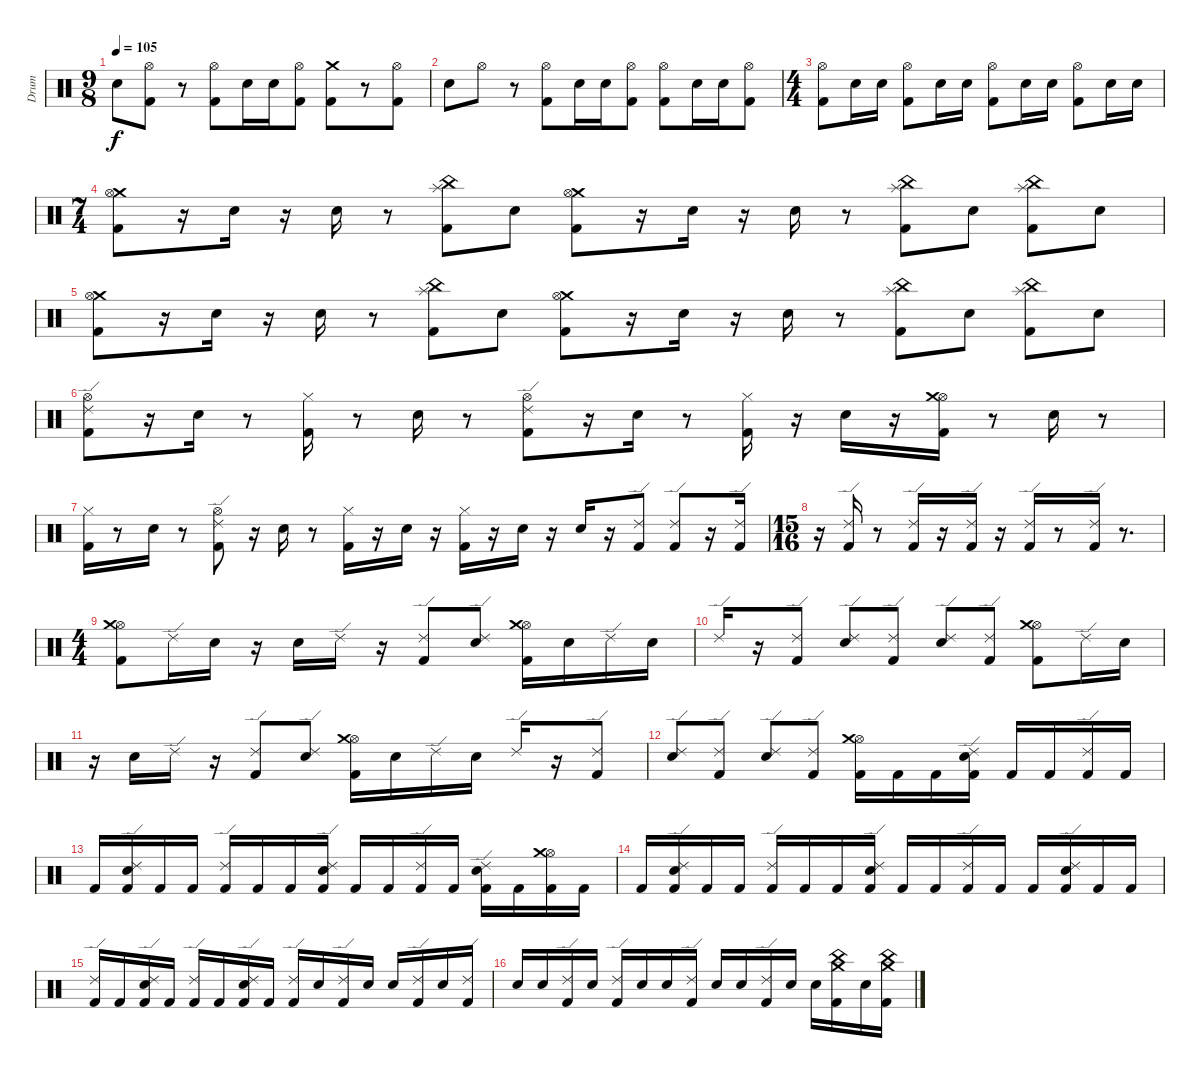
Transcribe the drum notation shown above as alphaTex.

\track ("Drum" "Drum") {instrument percussion}
\staff {score}
\articulation defaults
\ts (9 8)
\tempo 105
\clef neutral
\ks c "Electric Snare (hit)".8{dy f}
("Hi-Hat (open)" "Kick (hit) 2").8 r.8 ("Kick (hit) 2" "Hi-Hat (open)").8 "Electric Snare (hit)".16 "Electric Snare (hit)".16 ("Hi-Hat (open)" "Kick (hit) 2").8 ("Crash medium (hit)" "Kick (hit) 2").8 r.8 ("Hi-Hat (open)" "Kick (hit) 2").8 |
"Electric Snare (hit)".8 "Hi-Hat (open)".8 r.8 ("Hi-Hat (open)" "Kick (hit) 2").8 "Electric Snare (hit)".16 "Electric Snare (hit)".16 ("Hi-Hat (open)" "Kick (hit) 2").8 ("Hi-Hat (open)" "Kick (hit) 2").8 "Electric Snare (hit)".16 "Electric Snare (hit)".16 ("Hi-Hat (open)" "Kick (hit) 2").8 |
\ts (4 4)
("Hi-Hat (open)" "Kick (hit) 2").8 "Electric Snare (hit)".16 "Electric Snare (hit)".16 ("Hi-Hat (open)" "Kick (hit) 2").8 "Electric Snare (hit)".16 "Electric Snare (hit)".16 ("Hi-Hat (open)" "Kick (hit) 2").8 "Electric Snare (hit)".16 "Electric Snare (hit)".16 ("Hi-Hat (open)" "Kick (hit) 2").8 "Electric Snare (hit)".16 "Electric Snare (hit)".16 |
\ts (7 4)
("Crash medium (hit)" "Kick (hit) 2" "Hi-Hat (open)").8 r.16 "Electric Snare (hit)".16 r.16 "Electric Snare (hit)".16 r.8 ("China (hit)" "Splash (hit)" "Kick (hit) 2").8 "Electric Snare (hit)".8 ("Crash medium (hit)" "Hi-Hat (open)" "Kick (hit) 2").8 r.16 "Electric Snare (hit)".16 r.16 "Electric Snare (hit)".16 r.8 ("Splash (hit)" "China (hit)" "Kick (hit) 2").8 "Electric Snare (hit)".8 ("Splash (hit)" "China (hit)" "Kick (hit) 2").8 "Electric Snare (hit)".8 |
("Crash medium (hit)" "Kick (hit) 2" "Hi-Hat (open)").8 r.16 "Electric Snare (hit)".16 r.16 "Electric Snare (hit)".16 r.8 ("China (hit)" "Splash (hit)" "Kick (hit) 2").8 "Electric Snare (hit)".8 ("Crash medium (hit)" "Hi-Hat (open)" "Kick (hit) 2").8 r.16 "Electric Snare (hit)".16 r.16 "Electric Snare (hit)".16 r.8 ("Splash (hit)" "China (hit)" "Kick (hit) 2").8 "Electric Snare (hit)".8 ("Splash (hit)" "China (hit)" "Kick (hit) 2").8 "Electric Snare (hit)".8 |
("Ride (edge) 2" "Hi-Hat (open)" "Kick (hit) 2").8 r.16 "Electric Snare (hit)".16 r.8 ("Hi-Hat (closed)" "Kick (hit) 2").16 r.8 "Electric Snare (hit)".16 r.8 ("Ride (edge) 2" "Hi-Hat (open)" "Kick (hit) 2").8 r.16 "Electric Snare (hit)".16 r.8 ("Hi-Hat (closed)" "Kick (hit) 2").16 r.16 "Electric Snare (hit)".16 r.16 ("Kick (hit) 2" "Hi-Hat (open)" "Crash medium (hit)").16 r.8 "Electric Snare (hit)".16 r.8 |
("Hi-Hat (closed)" "Kick (hit) 2").16 r.8 "Electric Snare (hit)".16 r.8 ("Ride (edge) 2" "Hi-Hat (open)" "Kick (hit) 2").8 r.16 "Electric Snare (hit)".16 r.8 ("Hi-Hat (closed)" "Kick (hit) 2").16 r.16 "Electric Snare (hit)".16 r.16 ("Hi-Hat (closed)" "Kick (hit) 2").16 r.16 "Electric Snare (hit)".16 r.16 "Electric Snare (hit)".16 r.16 ("Ride (edge) 2" "Kick (hit) 2").8 ("Ride (edge) 2" "Kick (hit) 2").8 r.16 ("Kick (hit) 2" "Ride (edge) 2").16 |
\ts (15 16)
r.16 ("Kick (hit) 2" "Ride (edge) 2").16 r.8 ("Kick (hit) 2" "Ride (edge) 2").16 r.16 ("Kick (hit) 2" "Ride (edge) 2").16 r.16 ("Kick (hit) 2" "Ride (edge) 2").16 r.8 ("Kick (hit) 2" "Ride (edge) 2").16 r.8{d} |
\ts (4 4)
("Hi-Hat (open)" "Crash medium (hit)" "Kick (hit) 2").8 "Ride (edge) 2".16 "Electric Snare (hit)".16 r.16 "Electric Snare (hit)".16 "Ride (edge) 2".16 r.16 ("Kick (hit) 2" "Ride (edge) 2").8 ("Ride (edge) 2" "Electric Snare (hit)").8 ("Hi-Hat (open)" "Crash medium (hit)" "Kick (hit) 2").16 "Electric Snare (hit)".16 "Ride (edge) 2".16 "Electric Snare (hit)".16 |
"Ride (edge) 2".16 r.16 ("Kick (hit) 2" "Ride (edge) 2").8 ("Ride (edge) 2" "Electric Snare (hit)").8 ("Ride (edge) 2" "Kick (hit) 2").8 ("Ride (edge) 2" "Electric Snare (hit)").8 ("Ride (edge) 2" "Kick (hit) 2").8 ("Hi-Hat (open)" "Crash medium (hit)" "Kick (hit) 2").8 "Ride (edge) 2".16 "Electric Snare (hit)".16 |
r.16 "Electric Snare (hit)".16 "Ride (edge) 2".16 r.16 ("Kick (hit) 2" "Ride (edge) 2").8 ("Ride (edge) 2" "Electric Snare (hit)").8 ("Hi-Hat (open)" "Crash medium (hit)" "Kick (hit) 2").16 "Electric Snare (hit)".16 "Ride (edge) 2".16 "Electric Snare (hit)".16 "Ride (edge) 2".16 r.16 ("Kick (hit) 2" "Ride (edge) 2").8 |
("Ride (edge) 2" "Electric Snare (hit)").8 ("Ride (edge) 2" "Kick (hit) 2").8 ("Ride (edge) 2" "Electric Snare (hit)").8 ("Ride (edge) 2" "Kick (hit) 2").8 ("Hi-Hat (open)" "Crash medium (hit)" "Kick (hit) 2").16 "Kick (hit) 2".16 "Kick (hit) 2".16 ("Ride (edge) 2" "Electric Snare (hit)" "Kick (hit) 2").16 "Kick (hit) 2".16 "Kick (hit) 2".16 ("Ride (edge) 2" "Kick (hit) 2").16 "Kick (hit) 2".16 |
"Kick (hit) 2".16 ("Ride (edge) 2" "Electric Snare (hit)" "Kick (hit) 2").16 "Kick (hit) 2".16 "Kick (hit) 2".16 ("Ride (edge) 2" "Kick (hit) 2").16 "Kick (hit) 2".16 "Kick (hit) 2".16 ("Ride (edge) 2" "Electric Snare (hit)" "Kick (hit) 2").16 "Kick (hit) 2".16 "Kick (hit) 2".16 ("Ride (edge) 2" "Kick (hit) 2").16 "Kick (hit) 2".16 ("Ride (edge) 2" "Electric Snare (hit)" "Kick (hit) 2").16 "Kick (hit) 2".16 ("Hi-Hat (open)" "Crash medium (hit)" "Kick (hit) 2").16 "Kick (hit) 2".16 |
"Kick (hit) 2".16 ("Ride (edge) 2" "Electric Snare (hit)" "Kick (hit) 2").16 "Kick (hit) 2".16 "Kick (hit) 2".16 ("Ride (edge) 2" "Kick (hit) 2").16 "Kick (hit) 2".16 "Kick (hit) 2".16 ("Ride (edge) 2" "Electric Snare (hit)" "Kick (hit) 2").16 "Kick (hit) 2".16 "Kick (hit) 2".16 ("Ride (edge) 2" "Kick (hit) 2").16 "Kick (hit) 2".16 "Kick (hit) 2".16 ("Ride (edge) 2" "Electric Snare (hit)" "Kick (hit) 2").16 "Kick (hit) 2".16 "Kick (hit) 2".16 |
("Ride (edge) 2" "Kick (hit) 2").16 "Kick (hit) 2".16 ("Ride (edge) 2" "Electric Snare (hit)" "Kick (hit) 2").16 "Kick (hit) 2".16 ("Ride (edge) 2" "Kick (hit) 2").16 "Kick (hit) 2".16 ("Electric Snare (hit)" "Ride (edge) 2" "Kick (hit) 2").16 "Kick (hit) 2".16 ("Kick (hit) 2" "Ride (edge) 2").16 "Electric Snare (hit)".16 ("Kick (hit) 2" "Ride (edge) 2").16 "Electric Snare (hit)".16 "Electric Snare (hit)".16 ("Ride (edge) 2" "Kick (hit) 2").16 "Electric Snare (hit)".16 ("Ride (edge) 2" "Kick (hit) 2").16 |
"Electric Snare (hit)".16 "Electric Snare (hit)".16 ("Ride (edge) 2" "Kick (hit) 2").16 "Electric Snare (hit)".16 ("Ride (edge) 2" "Kick (hit) 2").16 "Electric Snare (hit)".16 "Electric Snare (hit)".16 ("Ride (edge) 2" "Kick (hit) 2").16 "Electric Snare (hit)".16 "Electric Snare (hit)".16 ("Kick (hit) 2" "Ride (edge) 2").16 "Electric Snare (hit)".16 "Electric Snare (hit)".16 ("Crash medium (hit)" "China (hit)" "Kick (hit) 2").16 "Electric Snare (hit)".16 ("Crash medium (hit)" "China (hit)" "Kick (hit) 2").16
